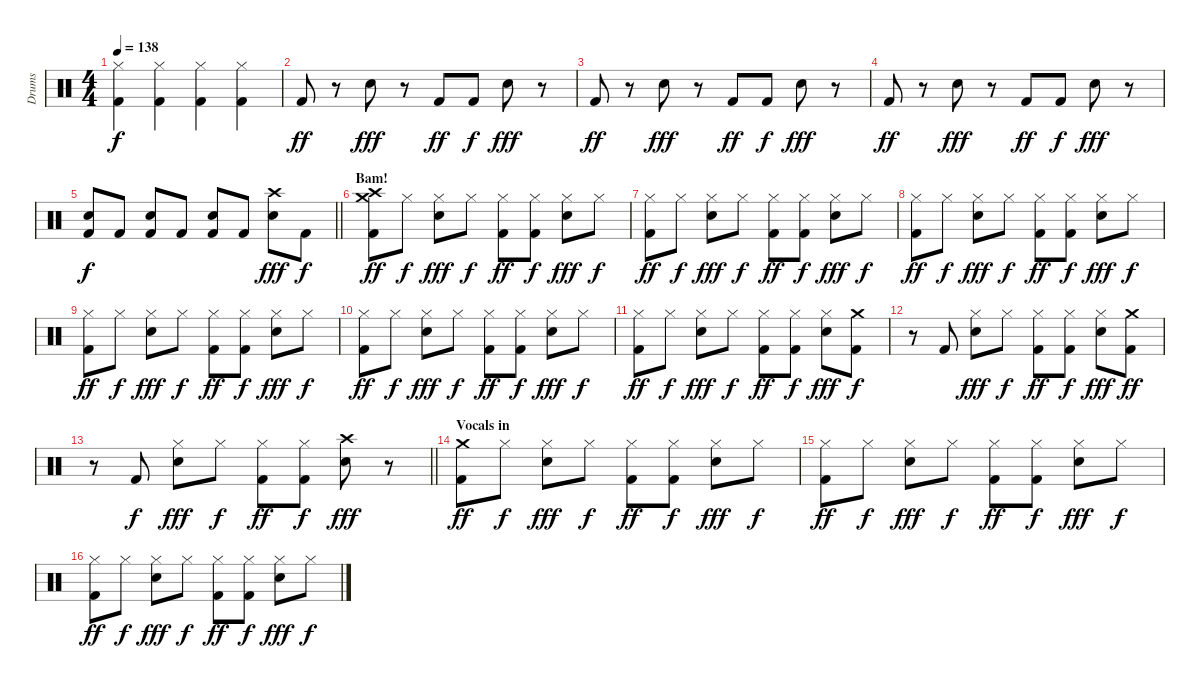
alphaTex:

\track ("Drums" "Drums") {instrument percussion}
\staff {score}
\articulation defaults
\ts (4 4)
\tempo 138
\clef neutral
\ks c
("Kick (hit) 2" "Hi-Hat (closed)").4{dy f} ("Kick (hit) 2" "Hi-Hat (closed)").4 ("Kick (hit) 2" "Hi-Hat (closed)").4 ("Kick (hit) 2" "Hi-Hat (closed)").4 |
"Kick (hit) 2".8{dy ff} r.8 "Snare (hit) 2".8{dy fff} r.8 "Kick (hit) 2".8{dy ff} "Kick (hit) 2".8{dy f} "Snare (hit) 2".8{dy fff} r.8 |
"Kick (hit) 2".8{dy ff} r.8 "Snare (hit) 2".8{dy fff} r.8 "Kick (hit) 2".8{dy ff} "Kick (hit) 2".8{dy f} "Snare (hit) 2".8{dy fff} r.8 |
"Kick (hit) 2".8{dy ff} r.8 "Snare (hit) 2".8{dy fff} r.8 "Kick (hit) 2".8{dy ff} "Kick (hit) 2".8{dy f} "Snare (hit) 2".8{dy fff} r.8 |
\barLineRight lightlight
("Kick (hit) 2" "Snare (hit) 2").8{dy f} "Kick (hit) 2".8 ("Kick (hit) 2" "Snare (hit) 2").8 "Kick (hit) 2".8 ("Kick (hit) 2" "Snare (hit) 2").8 "Kick (hit) 2".8 ("Snare (hit) 2" "Crash high (hit)").8{dy fff} "Kick (hit) 2".8{dy f} |
\section ("" "Bam!")
("Kick (hit) 2" "Crash high (hit)" "Crash medium (hit)").8{dy ff} "Hi-Hat (closed)".8{dy f} ("Snare (hit) 2" "Hi-Hat (closed)").8{dy fff} "Hi-Hat (closed)".8{dy f} ("Kick (hit) 2" "Hi-Hat (closed)").8{dy ff} ("Kick (hit) 2" "Hi-Hat (closed)").8{dy f} ("Snare (hit) 2" "Hi-Hat (closed)").8{dy fff} "Hi-Hat (closed)".8{dy f} |
("Kick (hit) 2" "Hi-Hat (closed)").8{dy ff} "Hi-Hat (closed)".8{dy f} ("Snare (hit) 2" "Hi-Hat (closed)").8{dy fff} "Hi-Hat (closed)".8{dy f} ("Kick (hit) 2" "Hi-Hat (closed)").8{dy ff} ("Kick (hit) 2" "Hi-Hat (closed)").8{dy f} ("Snare (hit) 2" "Hi-Hat (closed)").8{dy fff} "Hi-Hat (closed)".8{dy f} |
("Kick (hit) 2" "Hi-Hat (closed)").8{dy ff} "Hi-Hat (closed)".8{dy f} ("Snare (hit) 2" "Hi-Hat (closed)").8{dy fff} "Hi-Hat (closed)".8{dy f} ("Kick (hit) 2" "Hi-Hat (closed)").8{dy ff} ("Kick (hit) 2" "Hi-Hat (closed)").8{dy f} ("Snare (hit) 2" "Hi-Hat (closed)").8{dy fff} "Hi-Hat (closed)".8{dy f} |
("Kick (hit) 2" "Hi-Hat (closed)").8{dy ff} "Hi-Hat (closed)".8{dy f} ("Snare (hit) 2" "Hi-Hat (closed)").8{dy fff} "Hi-Hat (closed)".8{dy f} ("Kick (hit) 2" "Hi-Hat (closed)").8{dy ff} ("Kick (hit) 2" "Hi-Hat (closed)").8{dy f} ("Snare (hit) 2" "Hi-Hat (closed)").8{dy fff} "Hi-Hat (closed)".8{dy f} |
("Kick (hit) 2" "Hi-Hat (closed)").8{dy ff} "Hi-Hat (closed)".8{dy f} ("Snare (hit) 2" "Hi-Hat (closed)").8{dy fff} "Hi-Hat (closed)".8{dy f} ("Kick (hit) 2" "Hi-Hat (closed)").8{dy ff} ("Kick (hit) 2" "Hi-Hat (closed)").8{dy f} ("Snare (hit) 2" "Hi-Hat (closed)").8{dy fff} "Hi-Hat (closed)".8{dy f} |
("Kick (hit) 2" "Hi-Hat (closed)").8{dy ff} "Hi-Hat (closed)".8{dy f} ("Snare (hit) 2" "Hi-Hat (closed)").8{dy fff} "Hi-Hat (closed)".8{dy f} ("Kick (hit) 2" "Hi-Hat (closed)").8{dy ff} ("Kick (hit) 2" "Hi-Hat (closed)").8{dy f} ("Snare (hit) 2" "Hi-Hat (closed)").8{dy fff} ("Kick (hit) 2" "Crash medium (hit)").8{dy f} |
r.8 "Kick (hit) 2".8 ("Snare (hit) 2" "Hi-Hat (closed)").8{dy fff} "Hi-Hat (closed)".8{dy f} ("Kick (hit) 2" "Hi-Hat (closed)").8{dy ff} ("Kick (hit) 2" "Hi-Hat (closed)").8{dy f} ("Snare (hit) 2" "Hi-Hat (closed)").8{dy fff} ("Crash medium (hit)" "Kick (hit) 2").8{dy ff} |
\barLineRight lightlight
r.8 "Kick (hit) 2".8{dy f} ("Snare (hit) 2" "Hi-Hat (closed)").8{dy fff} "Hi-Hat (closed)".8{dy f} ("Kick (hit) 2" "Hi-Hat (closed)").8{dy ff} ("Kick (hit) 2" "Hi-Hat (closed)").8{dy f} ("Snare (hit) 2" "Crash high (hit)").8{dy fff} r.8 |
\section ("" "Vocals in")
("Kick (hit) 2" "Crash medium (hit)").8{dy ff} "Hi-Hat (closed)".8{dy f} ("Snare (hit) 2" "Hi-Hat (closed)").8{dy fff} "Hi-Hat (closed)".8{dy f} ("Kick (hit) 2" "Hi-Hat (closed)").8{dy ff} ("Kick (hit) 2" "Hi-Hat (closed)").8{dy f} ("Snare (hit) 2" "Hi-Hat (closed)").8{dy fff} "Hi-Hat (closed)".8{dy f} |
("Kick (hit) 2" "Hi-Hat (closed)").8{dy ff} "Hi-Hat (closed)".8{dy f} ("Snare (hit) 2" "Hi-Hat (closed)").8{dy fff} "Hi-Hat (closed)".8{dy f} ("Kick (hit) 2" "Hi-Hat (closed)").8{dy ff} ("Kick (hit) 2" "Hi-Hat (closed)").8{dy f} ("Snare (hit) 2" "Hi-Hat (closed)").8{dy fff} "Hi-Hat (closed)".8{dy f} |
("Kick (hit) 2" "Hi-Hat (closed)").8{dy ff} "Hi-Hat (closed)".8{dy f} ("Snare (hit) 2" "Hi-Hat (closed)").8{dy fff} "Hi-Hat (closed)".8{dy f} ("Kick (hit) 2" "Hi-Hat (closed)").8{dy ff} ("Kick (hit) 2" "Hi-Hat (closed)").8{dy f} ("Snare (hit) 2" "Hi-Hat (closed)").8{dy fff} "Hi-Hat (closed)".8{dy f}
